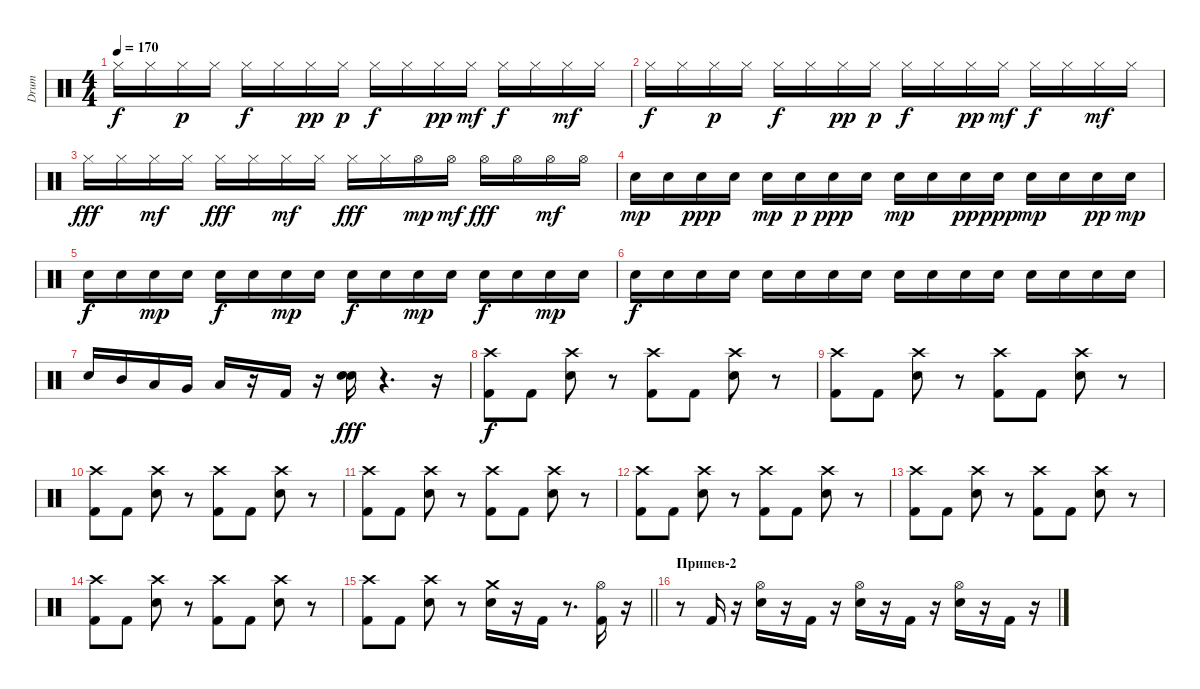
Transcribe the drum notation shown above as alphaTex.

\track ("Drum" "Drum") {instrument percussion}
\staff {score}
\articulation defaults
\ts (4 4)
\tempo 170
\clef neutral
\ks c "Hi-Hat (closed)".16{dy f} "Hi-Hat (closed)".16 "Hi-Hat (closed)".16{dy p} "Hi-Hat (closed)".16 "Hi-Hat (closed)".16{dy f} "Hi-Hat (closed)".16 "Hi-Hat (closed)".16{dy pp} "Hi-Hat (closed)".16{dy p} "Hi-Hat (closed)".16{dy f} "Hi-Hat (closed)".16 "Hi-Hat (closed)".16{dy pp} "Hi-Hat (closed)".16{dy mf} "Hi-Hat (closed)".16{dy f} "Hi-Hat (closed)".16 "Hi-Hat (closed)".16{dy mf} "Hi-Hat (closed)".16
|
"Hi-Hat (closed)".16{dy f} "Hi-Hat (closed)".16 "Hi-Hat (closed)".16{dy p} "Hi-Hat (closed)".16 "Hi-Hat (closed)".16{dy f} "Hi-Hat (closed)".16 "Hi-Hat (closed)".16{dy pp} "Hi-Hat (closed)".16{dy p} "Hi-Hat (closed)".16{dy f} "Hi-Hat (closed)".16 "Hi-Hat (closed)".16{dy pp} "Hi-Hat (closed)".16{dy mf} "Hi-Hat (closed)".16{dy f} "Hi-Hat (closed)".16 "Hi-Hat (closed)".16{dy mf} "Hi-Hat (closed)".16 |
"Hi-Hat (closed)".16{dy fff} "Hi-Hat (closed)".16 "Hi-Hat (closed)".16{dy mf} "Hi-Hat (closed)".16 "Hi-Hat (closed)".16{dy fff} "Hi-Hat (closed)".16 "Hi-Hat (closed)".16{dy mf} "Hi-Hat (closed)".16 "Hi-Hat (closed)".16{dy fff} "Hi-Hat (closed)".16 "Hi-Hat (open)".16{dy mp} "Hi-Hat (open)".16{dy mf} "Hi-Hat (open)".16{dy fff} "Hi-Hat (open)".16 "Hi-Hat (open)".16{dy mf} "Hi-Hat (open)".16 |
"Snare (hit) 2".16{dy mp} "Snare (hit) 2".16 "Snare (hit) 2".16{dy ppp} "Snare (hit) 2".16 "Snare (hit) 2".16{dy mp} "Snare (hit) 2".16{dy p} "Snare (hit) 2".16{dy ppp} "Snare (hit) 2".16 "Snare (hit) 2".16{dy mp} "Snare (hit) 2".16 "Snare (hit) 2".16{dy pp} "Snare (hit) 2".16{dy ppp} "Snare (hit) 2".16{dy mp} "Snare (hit) 2".16 "Snare (hit) 2".16{dy pp} "Snare (hit) 2".16{dy mp} |
"Snare (hit) 2".16{dy f} "Snare (hit) 2".16 "Snare (hit) 2".16{dy mp} "Snare (hit) 2".16 "Snare (hit) 2".16{dy f} "Snare (hit) 2".16 "Snare (hit) 2".16{dy mp} "Snare (hit) 2".16 "Snare (hit) 2".16{dy f} "Snare (hit) 2".16 "Snare (hit) 2".16{dy mp} "Snare (hit) 2".16 "Snare (hit) 2".16{dy f} "Snare (hit) 2".16 "Snare (hit) 2".16{dy mp} "Snare (hit) 2".16 |
"Snare (hit) 2".16{dy f} "Snare (hit) 2".16 "Snare (hit) 2".16 "Snare (hit) 2".16 "Snare (hit) 2".16 "Snare (hit) 2".16 "Snare (hit) 2".16 "Snare (hit) 2".16 "Snare (hit) 2".16 "Snare (hit) 2".16 "Snare (hit) 2".16 "Snare (hit) 2".16 "Snare (hit) 2".16 "Snare (hit) 2".16 "Snare (hit) 2".16 "Snare (hit) 2".16 |
"Snare (hit) 2".16 "Mid Tom (hit)".16 "Low Tom (hit)".16 "Very Low Tom (hit)".16 "Low Floor Tom (hit)".16 r.16 "Kick (hit) 2".16 r.16 ("Snare (hit) 2" "Electric Snare (hit)").16{dy fff} r.4{d} r.16 |
("Crash high (hit)" "Kick (hit) 2").8{dy f} "Kick (hit) 2".8 ("Crash high (hit)" "Snare (hit) 2").8 r.8 ("Crash high (hit)" "Kick (hit) 2").8 "Kick (hit) 2".8 ("Crash high (hit)" "Snare (hit) 2").8 r.8 |
("Crash high (hit)" "Kick (hit) 2").8 "Kick (hit) 2".8 ("Crash high (hit)" "Snare (hit) 2").8 r.8 ("Crash high (hit)" "Kick (hit) 2").8 "Kick (hit) 2".8 ("Crash high (hit)" "Snare (hit) 2").8 r.8 |
("Crash high (hit)" "Kick (hit) 2").8 "Kick (hit) 2".8 ("Crash high (hit)" "Snare (hit) 2").8 r.8 ("Crash high (hit)" "Kick (hit) 2").8 "Kick (hit) 2".8 ("Crash high (hit)" "Snare (hit) 2").8 r.8 |
("Crash high (hit)" "Kick (hit) 2").8 "Kick (hit) 2".8 ("Crash high (hit)" "Snare (hit) 2").8 r.8 ("Crash high (hit)" "Kick (hit) 2").8 "Kick (hit) 2".8 ("Crash high (hit)" "Snare (hit) 2").8 r.8 |
("Crash high (hit)" "Kick (hit) 2").8 "Kick (hit) 2".8 ("Crash high (hit)" "Snare (hit) 2").8 r.8 ("Crash high (hit)" "Kick (hit) 2").8 "Kick (hit) 2".8 ("Crash high (hit)" "Snare (hit) 2").8 r.8 |
("Crash high (hit)" "Kick (hit) 2").8 "Kick (hit) 2".8 ("Crash high (hit)" "Snare (hit) 2").8 r.8 ("Crash high (hit)" "Kick (hit) 2").8 "Kick (hit) 2".8 ("Crash high (hit)" "Snare (hit) 2").8 r.8 |
("Crash high (hit)" "Kick (hit) 2").8 "Kick (hit) 2".8 ("Crash high (hit)" "Snare (hit) 2").8 r.8 ("Crash high (hit)" "Kick (hit) 2").8 "Kick (hit) 2".8 ("Crash high (hit)" "Snare (hit) 2").8 r.8 |
\barLineRight lightlight
("Crash high (hit)" "Kick (hit) 2").8 "Kick (hit) 2".8 ("Crash high (hit)" "Snare (hit) 2").8 r.8 ("Crash medium (hit)" "Electric Snare (hit)").16 r.16 "Kick (hit) 2".16 r.8{d} ("Hi-Hat (open)" "Kick (hit) 2").16 r.16 |
\section ("" "Припев-2")
r.8 "Kick (hit) 2".16 r.16 ("Snare (hit) 2" "Hi-Hat (open)").16 r.16 "Kick (hit) 2".16 r.16 ("Hi-Hat (open)" "Snare (hit) 2").16 r.16 "Kick (hit) 2".16 r.16 ("Snare (hit) 2" "Hi-Hat (open)").16 r.16 "Kick (hit) 2".16 r.16
